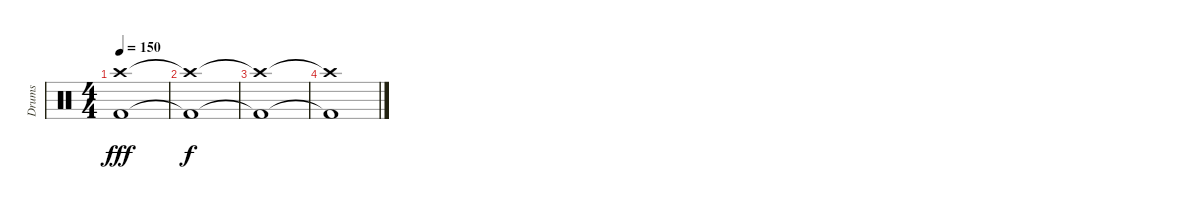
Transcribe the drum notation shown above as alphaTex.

\track ("Drums" "Drums") {instrument percussion}
\staff {score}
\articulation defaults
\ts (4 4)
\tempo 150
\clef neutral
\ks c
("Crash high (hit)" "Kick (hit) 2").1{dy fff} |
("Crash high (hit)"{t} "Kick (hit) 2"{t}).1{dy f} |
("Crash high (hit)"{t} "Kick (hit) 2"{t}).1 |
("Crash high (hit)"{t} "Kick (hit) 2"{t}).1
